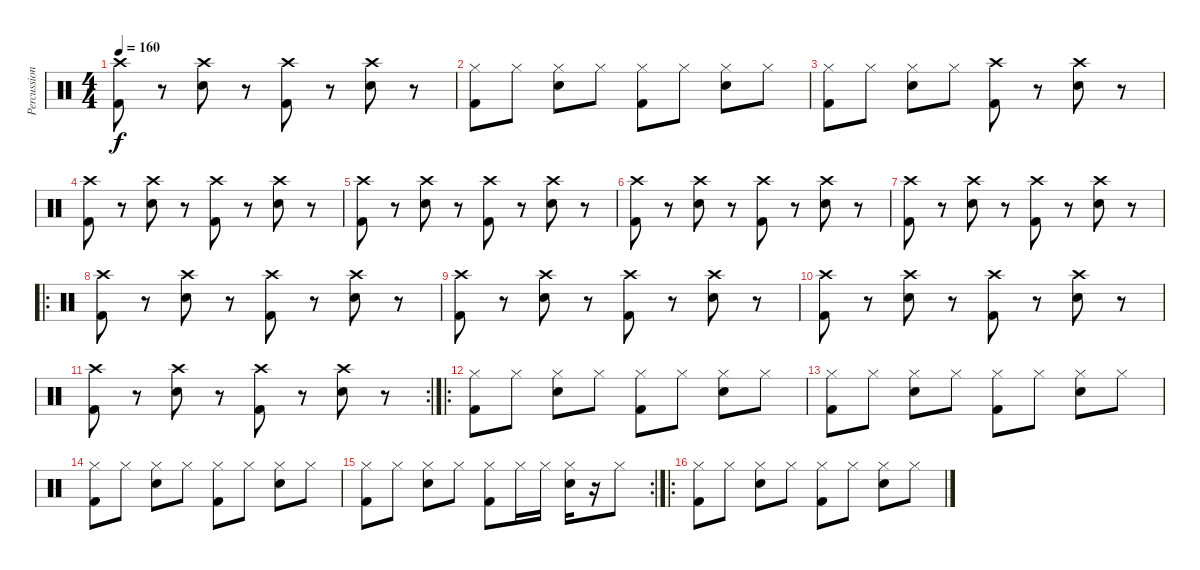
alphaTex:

\track ("Percussions" "Percussion") {instrument percussion}
\staff {score}
\articulation defaults
\ts (4 4)
\tempo 160
\clef neutral
\ks c
("Crash high (hit)" "Kick (hit) 2").8{dy f} r.8 ("Crash high (hit)" "Electric Snare (hit)").8 r.8 ("Crash high (hit)" "Kick (hit) 2").8 r.8 ("Crash high (hit)" "Electric Snare (hit)").8 r.8 |
("Hi-Hat (closed)" "Kick (hit) 2").8 "Hi-Hat (closed)".8 ("Hi-Hat (closed)" "Electric Snare (hit)").8 "Hi-Hat (closed)".8 ("Hi-Hat (closed)" "Kick (hit) 2").8 "Hi-Hat (closed)".8 ("Hi-Hat (closed)" "Electric Snare (hit)").8 "Hi-Hat (closed)".8 |
("Hi-Hat (closed)" "Kick (hit) 2").8 "Hi-Hat (closed)".8 ("Hi-Hat (closed)" "Electric Snare (hit)").8 "Hi-Hat (closed)".8 ("Crash high (hit)" "Kick (hit) 2").8 r.8 ("Crash high (hit)" "Electric Snare (hit)").8 r.8 |
("Crash high (hit)" "Kick (hit) 2").8 r.8 ("Crash high (hit)" "Electric Snare (hit)").8 r.8 ("Crash high (hit)" "Kick (hit) 2").8 r.8 ("Crash high (hit)" "Electric Snare (hit)").8 r.8 |
("Crash high (hit)" "Kick (hit) 2").8 r.8 ("Crash high (hit)" "Electric Snare (hit)").8 r.8 ("Crash high (hit)" "Kick (hit) 2").8 r.8 ("Crash high (hit)" "Electric Snare (hit)").8 r.8 |
("Crash high (hit)" "Kick (hit) 2").8 r.8 ("Crash high (hit)" "Electric Snare (hit)").8 r.8 ("Crash high (hit)" "Kick (hit) 2").8 r.8 ("Crash high (hit)" "Electric Snare (hit)").8 r.8 |
("Crash high (hit)" "Kick (hit) 2").8 r.8 ("Crash high (hit)" "Electric Snare (hit)").8 r.8 ("Crash high (hit)" "Kick (hit) 2").8 r.8 ("Crash high (hit)" "Electric Snare (hit)").8 r.8 |
\ro
("Crash high (hit)" "Kick (hit) 2").8 r.8 ("Crash high (hit)" "Electric Snare (hit)").8 r.8 ("Crash high (hit)" "Kick (hit) 2").8 r.8 ("Crash high (hit)" "Electric Snare (hit)").8 r.8 |
("Crash high (hit)" "Kick (hit) 2").8 r.8 ("Crash high (hit)" "Electric Snare (hit)").8 r.8 ("Crash high (hit)" "Kick (hit) 2").8 r.8 ("Crash high (hit)" "Electric Snare (hit)").8 r.8 |
("Crash high (hit)" "Kick (hit) 2").8 r.8 ("Crash high (hit)" "Electric Snare (hit)").8 r.8 ("Crash high (hit)" "Kick (hit) 2").8 r.8 ("Crash high (hit)" "Electric Snare (hit)").8 r.8 |
\rc 2
("Crash high (hit)" "Kick (hit) 2").8 r.8 ("Crash high (hit)" "Electric Snare (hit)").8 r.8 ("Crash high (hit)" "Kick (hit) 2").8 r.8 ("Crash high (hit)" "Electric Snare (hit)").8 r.8 |
\ro
("Hi-Hat (closed)" "Kick (hit) 2").8 "Hi-Hat (closed)".8 ("Hi-Hat (closed)" "Electric Snare (hit)").8 "Hi-Hat (closed)".8 ("Hi-Hat (closed)" "Kick (hit) 2").8 "Hi-Hat (closed)".8 ("Hi-Hat (closed)" "Electric Snare (hit)").8 "Hi-Hat (closed)".8 |
("Hi-Hat (closed)" "Kick (hit) 2").8 "Hi-Hat (closed)".8 ("Hi-Hat (closed)" "Electric Snare (hit)").8 "Hi-Hat (closed)".8 ("Hi-Hat (closed)" "Kick (hit) 2").8 "Hi-Hat (closed)".8 ("Hi-Hat (closed)" "Electric Snare (hit)").8 "Hi-Hat (closed)".8 |
("Hi-Hat (closed)" "Kick (hit) 2").8 "Hi-Hat (closed)".8 ("Hi-Hat (closed)" "Electric Snare (hit)").8 "Hi-Hat (closed)".8 ("Hi-Hat (closed)" "Kick (hit) 2").8 "Hi-Hat (closed)".8 ("Hi-Hat (closed)" "Electric Snare (hit)").8 "Hi-Hat (closed)".8 |
\rc 2
("Hi-Hat (closed)" "Kick (hit) 2").8 "Hi-Hat (closed)".8 ("Hi-Hat (closed)" "Electric Snare (hit)").8 "Hi-Hat (closed)".8 ("Hi-Hat (closed)" "Kick (hit) 2").8 "Hi-Hat (closed)".16 "Hi-Hat (closed)".16 ("Hi-Hat (closed)" "Electric Snare (hit)").16 r.16 "Hi-Hat (closed)".8 |
\ro
("Hi-Hat (closed)" "Kick (hit) 2").8 "Hi-Hat (closed)".8 ("Hi-Hat (closed)" "Electric Snare (hit)").8 "Hi-Hat (closed)".8 ("Hi-Hat (closed)" "Kick (hit) 2").8 "Hi-Hat (closed)".8 ("Hi-Hat (closed)" "Electric Snare (hit)").8 "Hi-Hat (closed)".8
